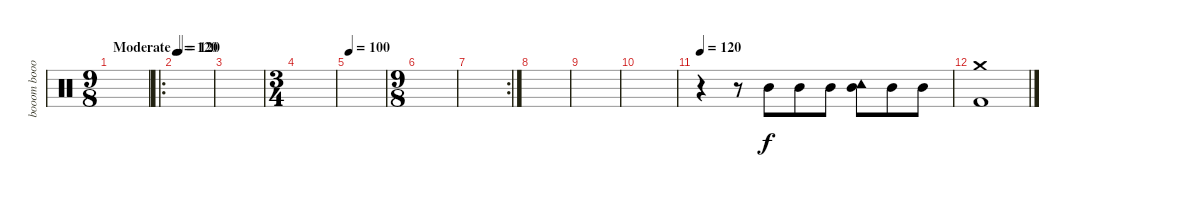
\track ("booom boooom boooom" "booom booo") {instrument percussion}
\staff {score}
\articulation defaults
\ts (9 8)
\tempo (120 "Moderate")
\tempo 98
\tempo (120 "Moderate")
\clef neutral
\ks c
|
\ro
\tempo 120
|
|
\ts (3 4)
|
\tempo 100
|
\ts (9 8)
|
\rc 2
|
|
|
|
\tempo 120
r.4 r.8 "Mid Tom (hit)".8 "Mid Tom (hit)".8 "Mid Tom (hit)".8 ("Tambourine (hit)" "Mid Tom (hit)").8 "Mid Tom (hit)".8 "Mid Tom (hit)".8 |
("Kick (hit) 2" "Crash medium (hit)").1
